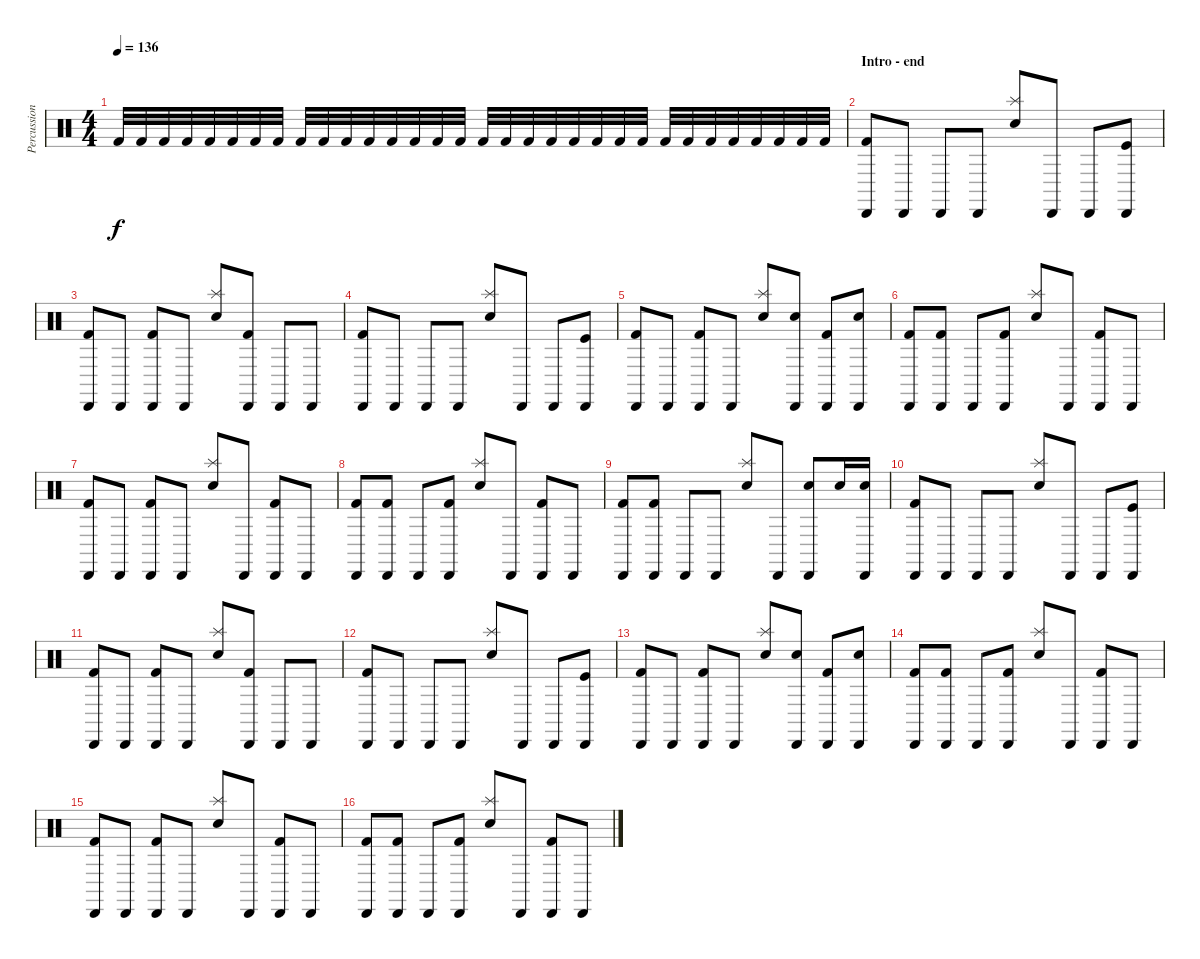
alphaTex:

\track ("Percussion 2" "Percussion") {instrument percussion}
\staff {score}
\articulation defaults
\ts (4 4)
\tempo 136
\clef neutral
\ks c "Kick (hit) 2".32{dy f volume 14} "Kick (hit) 2".32 "Kick (hit) 2".32 "Kick (hit) 2".32 "Kick (hit) 2".32 "Kick (hit) 2".32 "Kick (hit) 2".32 "Kick (hit) 2".32 "Kick (hit) 2".32 "Kick (hit) 2".32 "Kick (hit) 2".32 "Kick (hit) 2".32 "Kick (hit) 2".32 "Kick (hit) 2".32 "Kick (hit) 2".32 "Kick (hit) 2".32 "Kick (hit) 2".32 "Kick (hit) 2".32 "Kick (hit) 2".32 "Kick (hit) 2".32 "Kick (hit) 2".32 "Kick (hit) 2".32 "Kick (hit) 2".32 "Kick (hit) 2".32 "Kick (hit) 2".32 "Kick (hit) 2".32 "Kick (hit) 2".32 "Kick (hit) 2".32 "Kick (hit) 2".32 "Kick (hit) 2".32 "Kick (hit) 2".32 "Kick (hit) 2".32
|
\section ("" "Intro - end")
("Kick (hit) 2" "Cabasa (hit)").8 "Cabasa (hit)".8 "Cabasa (hit)".8 "Cabasa (hit)".8 ("Snare (hit) 2" "Splash (hit)").8 "Cabasa (hit)".8 "Cabasa (hit)".8 ("Kick (hit)" "Cabasa (hit)").8 |
("Kick (hit) 2" "Cabasa (hit)").8 "Cabasa (hit)".8 ("Kick (hit) 2" "Cabasa (hit)").8 "Cabasa (hit)".8 ("Snare (hit) 2" "Splash (hit)").8 ("Kick (hit) 2" "Cabasa (hit)").8 "Cabasa (hit)".8 "Cabasa (hit)".8 |
("Kick (hit) 2" "Cabasa (hit)").8 "Cabasa (hit)".8 "Cabasa (hit)".8 "Cabasa (hit)".8 ("Snare (hit) 2" "Splash (hit)").8 "Cabasa (hit)".8 "Cabasa (hit)".8 ("Kick (hit)" "Cabasa (hit)").8 |
("Kick (hit) 2" "Cabasa (hit)").8 "Cabasa (hit)".8 ("Kick (hit) 2" "Cabasa (hit)").8 "Cabasa (hit)".8 ("Snare (hit) 2" "Splash (hit)").8 ("Snare (hit) 2" "Cabasa (hit)").8 ("Kick (hit) 2" "Cabasa (hit)").8 ("Snare (hit) 2" "Cabasa (hit)").8 |
("Kick (hit) 2" "Cabasa (hit)").8 ("Kick (hit) 2" "Cabasa (hit)").8 "Cabasa (hit)".8 ("Kick (hit) 2" "Cabasa (hit)").8 ("Snare (hit) 2" "Splash (hit)").8 "Cabasa (hit)".8 ("Kick (hit) 2" "Cabasa (hit)").8 "Cabasa (hit)".8 |
("Kick (hit) 2" "Cabasa (hit)").8 "Cabasa (hit)".8 ("Kick (hit) 2" "Cabasa (hit)").8 "Cabasa (hit)".8 ("Snare (hit) 2" "Splash (hit)").8 "Cabasa (hit)".8 ("Kick (hit) 2" "Cabasa (hit)").8 "Cabasa (hit)".8 |
("Kick (hit) 2" "Cabasa (hit)").8 ("Kick (hit) 2" "Cabasa (hit)").8 "Cabasa (hit)".8 ("Kick (hit) 2" "Cabasa (hit)").8 ("Snare (hit) 2" "Splash (hit)").8 "Cabasa (hit)".8 ("Kick (hit) 2" "Cabasa (hit)").8 "Cabasa (hit)".8 |
("Kick (hit) 2" "Cabasa (hit)").8 ("Kick (hit) 2" "Cabasa (hit)").8 "Cabasa (hit)".8 "Cabasa (hit)".8 ("Snare (hit) 2" "Splash (hit)").8 "Cabasa (hit)".8 ("Snare (hit) 2" "Cabasa (hit)").8 "Snare (hit) 2".16 ("Snare (hit) 2" "Cabasa (hit)").16 |
("Kick (hit) 2" "Cabasa (hit)").8 "Cabasa (hit)".8 "Cabasa (hit)".8 "Cabasa (hit)".8 ("Snare (hit) 2" "Splash (hit)").8 "Cabasa (hit)".8 "Cabasa (hit)".8 ("Kick (hit)" "Cabasa (hit)").8 |
("Kick (hit) 2" "Cabasa (hit)").8 "Cabasa (hit)".8 ("Kick (hit) 2" "Cabasa (hit)").8 "Cabasa (hit)".8 ("Snare (hit) 2" "Splash (hit)").8 ("Kick (hit) 2" "Cabasa (hit)").8 "Cabasa (hit)".8 "Cabasa (hit)".8 |
("Kick (hit) 2" "Cabasa (hit)").8 "Cabasa (hit)".8 "Cabasa (hit)".8 "Cabasa (hit)".8 ("Snare (hit) 2" "Splash (hit)").8 "Cabasa (hit)".8 "Cabasa (hit)".8 ("Kick (hit)" "Cabasa (hit)").8 |
("Kick (hit) 2" "Cabasa (hit)").8 "Cabasa (hit)".8 ("Kick (hit) 2" "Cabasa (hit)").8 "Cabasa (hit)".8 ("Snare (hit) 2" "Splash (hit)").8 ("Snare (hit) 2" "Cabasa (hit)").8 ("Kick (hit) 2" "Cabasa (hit)").8 ("Snare (hit) 2" "Cabasa (hit)").8 |
("Kick (hit) 2" "Cabasa (hit)").8 ("Kick (hit) 2" "Cabasa (hit)").8 "Cabasa (hit)".8 ("Kick (hit) 2" "Cabasa (hit)").8 ("Snare (hit) 2" "Splash (hit)").8 "Cabasa (hit)".8 ("Kick (hit) 2" "Cabasa (hit)").8 "Cabasa (hit)".8 |
("Kick (hit) 2" "Cabasa (hit)").8 "Cabasa (hit)".8 ("Kick (hit) 2" "Cabasa (hit)").8 "Cabasa (hit)".8 ("Snare (hit) 2" "Splash (hit)").8 "Cabasa (hit)".8 ("Kick (hit) 2" "Cabasa (hit)").8 "Cabasa (hit)".8 |
("Kick (hit) 2" "Cabasa (hit)").8 ("Kick (hit) 2" "Cabasa (hit)").8 "Cabasa (hit)".8 ("Kick (hit) 2" "Cabasa (hit)").8 ("Snare (hit) 2" "Splash (hit)").8 "Cabasa (hit)".8 ("Kick (hit) 2" "Cabasa (hit)").8 "Cabasa (hit)".8
